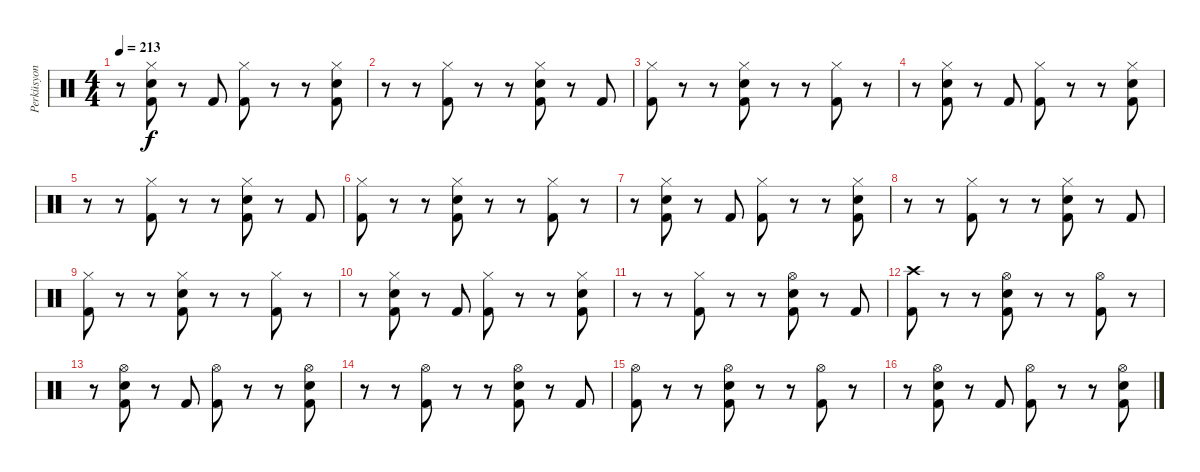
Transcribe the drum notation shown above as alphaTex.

\track ("Perküsyon" "Perküsyon") {instrument percussion}
\staff {score}
\articulation defaults
\ts (4 4)
\tempo 213
\clef neutral
\ks c
r.8{dy f} ("Hi-Hat (closed)" "Electric Snare (hit)" "Kick (hit) 2").8 r.8 "Kick (hit) 2".8 ("Hi-Hat (closed)" "Kick (hit) 2").8 r.8 r.8 ("Hi-Hat (closed)" "Electric Snare (hit)" "Kick (hit) 2").8 |
r.8 r.8 ("Hi-Hat (closed)" "Kick (hit) 2").8 r.8 r.8 ("Hi-Hat (closed)" "Electric Snare (hit)" "Kick (hit) 2").8 r.8 "Kick (hit) 2".8 |
("Hi-Hat (closed)" "Kick (hit) 2").8 r.8 r.8 ("Hi-Hat (closed)" "Electric Snare (hit)" "Kick (hit) 2").8 r.8 r.8 ("Hi-Hat (closed)" "Kick (hit) 2").8 r.8 |
r.8 ("Hi-Hat (closed)" "Electric Snare (hit)" "Kick (hit) 2").8 r.8 "Kick (hit) 2".8 ("Hi-Hat (closed)" "Kick (hit) 2").8 r.8 r.8 ("Hi-Hat (closed)" "Electric Snare (hit)" "Kick (hit) 2").8 |
r.8 r.8 ("Hi-Hat (closed)" "Kick (hit) 2").8 r.8 r.8 ("Hi-Hat (closed)" "Electric Snare (hit)" "Kick (hit) 2").8 r.8 "Kick (hit) 2".8 |
("Hi-Hat (closed)" "Kick (hit) 2").8 r.8 r.8 ("Hi-Hat (closed)" "Electric Snare (hit)" "Kick (hit) 2").8 r.8 r.8 ("Hi-Hat (closed)" "Kick (hit) 2").8 r.8 |
r.8 ("Hi-Hat (closed)" "Electric Snare (hit)" "Kick (hit) 2").8 r.8 "Kick (hit) 2".8 ("Hi-Hat (closed)" "Kick (hit) 2").8 r.8 r.8 ("Hi-Hat (closed)" "Electric Snare (hit)" "Kick (hit) 2").8 |
r.8 r.8 ("Hi-Hat (closed)" "Kick (hit) 2").8 r.8 r.8 ("Hi-Hat (closed)" "Electric Snare (hit)" "Kick (hit) 2").8 r.8 "Kick (hit) 2".8 |
("Hi-Hat (closed)" "Kick (hit) 2").8 r.8 r.8 ("Hi-Hat (closed)" "Electric Snare (hit)" "Kick (hit) 2").8 r.8 r.8 ("Hi-Hat (closed)" "Kick (hit) 2").8 r.8 |
r.8 ("Hi-Hat (closed)" "Electric Snare (hit)" "Kick (hit) 2").8 r.8 "Kick (hit) 2".8 ("Hi-Hat (closed)" "Kick (hit) 2").8 r.8 r.8 ("Hi-Hat (closed)" "Electric Snare (hit)" "Kick (hit) 2").8 |
r.8 r.8 ("Hi-Hat (closed)" "Kick (hit) 2").8 r.8 r.8 ("Hi-Hat (open)" "Electric Snare (hit)" "Kick (hit) 2").8 r.8 "Kick (hit) 2".8 |
("Crash high (hit)" "Kick (hit) 2").8 r.8 r.8 ("Hi-Hat (open)" "Electric Snare (hit)" "Kick (hit) 2").8 r.8 r.8 ("Hi-Hat (open)" "Kick (hit) 2").8 r.8 |
r.8 ("Hi-Hat (open)" "Electric Snare (hit)" "Kick (hit) 2").8 r.8 "Kick (hit) 2".8 ("Hi-Hat (open)" "Kick (hit) 2").8 r.8 r.8 ("Hi-Hat (open)" "Electric Snare (hit)" "Kick (hit) 2").8 |
r.8 r.8 ("Hi-Hat (open)" "Kick (hit) 2").8 r.8 r.8 ("Hi-Hat (open)" "Electric Snare (hit)" "Kick (hit) 2").8 r.8 "Kick (hit) 2".8 |
("Hi-Hat (open)" "Kick (hit) 2").8 r.8 r.8 ("Hi-Hat (open)" "Electric Snare (hit)" "Kick (hit) 2").8 r.8 r.8 ("Hi-Hat (open)" "Kick (hit) 2").8 r.8 |
r.8 ("Hi-Hat (open)" "Electric Snare (hit)" "Kick (hit) 2").8 r.8 "Kick (hit) 2".8 ("Hi-Hat (open)" "Kick (hit) 2").8 r.8 r.8 ("Hi-Hat (open)" "Electric Snare (hit)" "Kick (hit) 2").8
